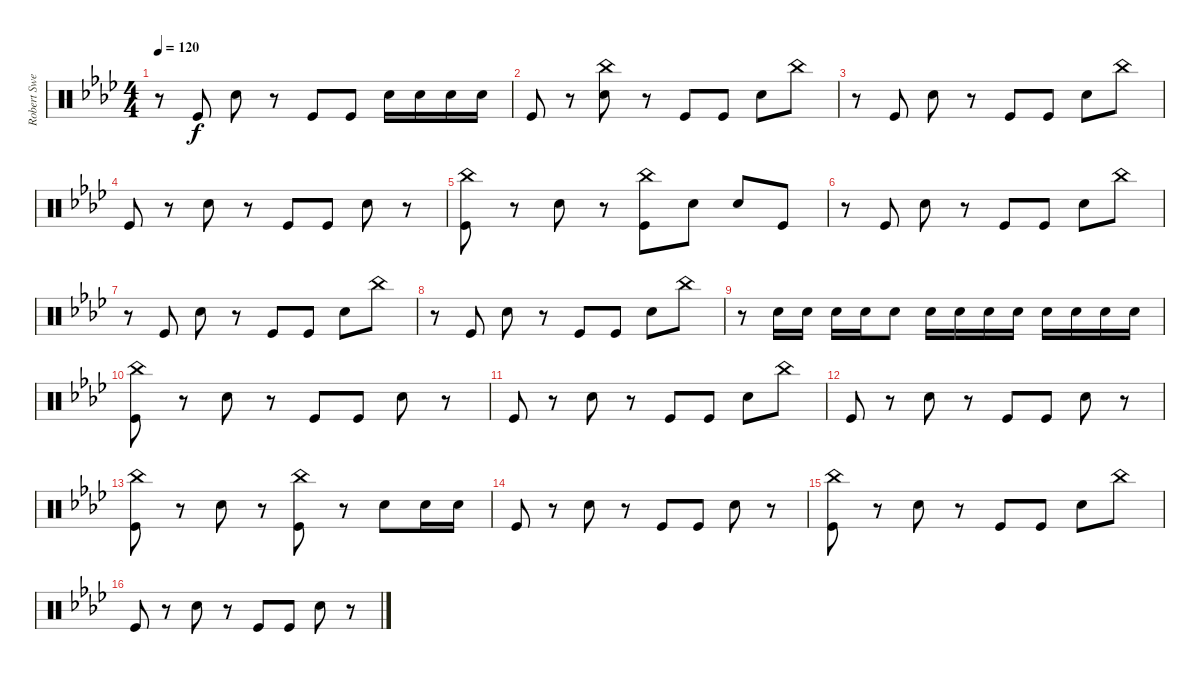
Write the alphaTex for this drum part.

\track ("Robert Sweet" "Robert Swe") {instrument percussion}
\staff {score}
\articulation defaults
\ts (4 4)
\tempo 120
\clef neutral
\ks ab
r.8{dy f} "Kick (hit)".8 "Snare (hit) 2".8 r.8 "Kick (hit)".8 "Kick (hit)".8 "Snare (hit) 2".16 "Snare (hit) 2".16 "Snare (hit) 2".16 "Snare (hit) 2".16 |
"Kick (hit)".8 r.8 ("Snare (hit) 2" "China (hit)").8 r.8 "Kick (hit)".8 "Kick (hit)".8 "Snare (hit) 2".8 "China (hit)".8 |
r.8 "Kick (hit)".8 "Snare (hit) 2".8 r.8 "Kick (hit)".8 "Kick (hit)".8 "Snare (hit) 2".8 "China (hit)".8 |
"Kick (hit)".8 r.8 "Snare (hit) 2".8 r.8 "Kick (hit)".8 "Kick (hit)".8 "Snare (hit) 2".8 r.8 |
("Kick (hit)" "China (hit)").8 r.8 "Snare (hit) 2".8 r.8 ("Kick (hit)" "China (hit)").8 "Snare (hit) 2".8 "Snare (hit) 2".8 "Kick (hit)".8 |
r.8 "Kick (hit)".8 "Snare (hit) 2".8 r.8 "Kick (hit)".8 "Kick (hit)".8 "Snare (hit) 2".8 "China (hit)".8 |
r.8 "Kick (hit)".8 "Snare (hit) 2".8 r.8 "Kick (hit)".8 "Kick (hit)".8 "Snare (hit) 2".8 "China (hit)".8 |
r.8 "Kick (hit)".8 "Snare (hit) 2".8 r.8 "Kick (hit)".8 "Kick (hit)".8 "Snare (hit) 2".8 "China (hit)".8 |
r.8 "Snare (hit) 2".16 "Snare (hit) 2".16 "Snare (hit) 2".16 "Snare (hit) 2".16 "Snare (hit) 2".8 "Snare (hit) 2".16 "Snare (hit) 2".16 "Snare (hit) 2".16 "Snare (hit) 2".16 "Snare (hit) 2".16 "Snare (hit) 2".16 "Snare (hit) 2".16 "Snare (hit) 2".16 |
("Kick (hit)" "China (hit)").8 r.8 "Snare (hit) 2".8 r.8 "Kick (hit)".8 "Kick (hit)".8 "Snare (hit) 2".8 r.8 |
"Kick (hit)".8 r.8 "Snare (hit) 2".8 r.8 "Kick (hit)".8 "Kick (hit)".8 "Snare (hit) 2".8 "China (hit)".8 |
"Kick (hit)".8 r.8 "Snare (hit) 2".8 r.8 "Kick (hit)".8 "Kick (hit)".8 "Snare (hit) 2".8 r.8 |
("Kick (hit)" "China (hit)").8 r.8 "Snare (hit) 2".8 r.8 ("Kick (hit)" "China (hit)").8 r.8 "Snare (hit) 2".8 "Snare (hit) 2".16 "Snare (hit) 2".16 |
"Kick (hit)".8 r.8 "Snare (hit) 2".8 r.8 "Kick (hit)".8 "Kick (hit)".8 "Snare (hit) 2".8 r.8 |
("Kick (hit)" "China (hit)").8 r.8 "Snare (hit) 2".8 r.8 "Kick (hit)".8 "Kick (hit)".8 "Snare (hit) 2".8 "China (hit)".8 |
"Kick (hit)".8 r.8 "Snare (hit) 2".8 r.8 "Kick (hit)".8 "Kick (hit)".8 "Snare (hit) 2".8 r.8
